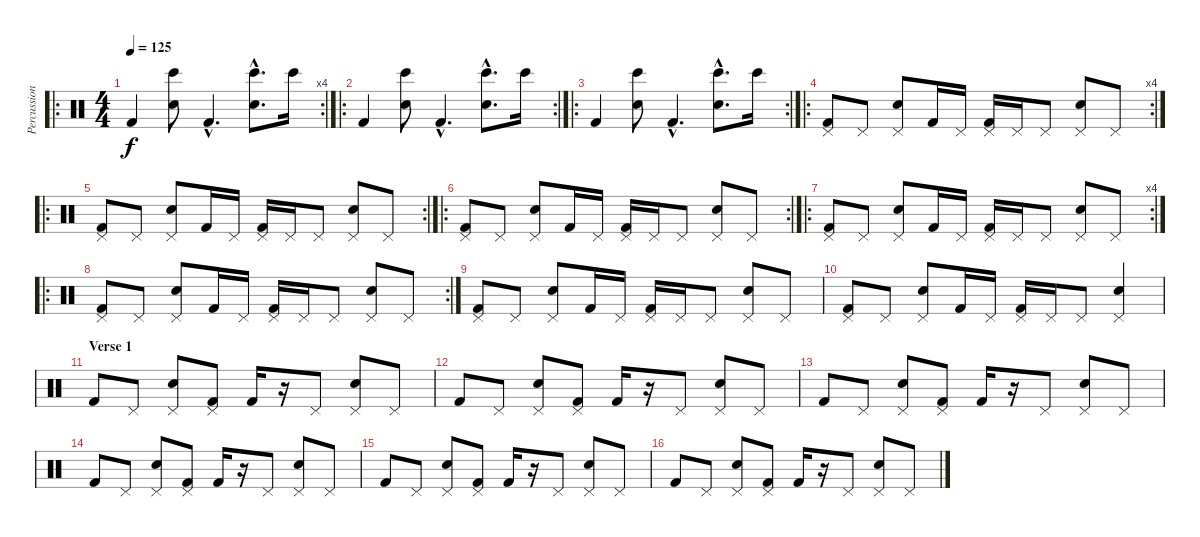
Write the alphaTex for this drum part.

\track ("Percussions" "Percussion") {instrument percussion}
\staff {score}
\articulation defaults
\ro
\rc 4
\ts (4 4)
\tempo 125
\clef neutral
\ks c "Kick (hit) 2".4{dy f}
("Electric Snare (hit)" "Bongo High (hit)").8 "Kick (hit) 2"{hac}.4{d} ("Electric Snare (hit)"{hac} "Bongo High (hit)"{hac}).8{d} "Bongo High (hit)".16 |
\ro
\rc 2 "Kick (hit) 2".4
("Electric Snare (hit)" "Bongo High (hit)").8 "Kick (hit) 2"{hac}.4{d} ("Electric Snare (hit)"{hac} "Bongo High (hit)"{hac}).8{d} "Bongo High (hit)".16 |
\ro
\rc 2 "Kick (hit) 2".4
("Electric Snare (hit)" "Bongo High (hit)").8 "Kick (hit) 2"{hac}.4{d} ("Electric Snare (hit)"{hac} "Bongo High (hit)"{hac}).8{d} "Bongo High (hit)".16 |
\ro
\rc 4
("Pedal Hi-Hat (hit)" "Kick (hit) 2").8 "Pedal Hi-Hat (hit)".8 ("Pedal Hi-Hat (hit)" "Electric Snare (hit)").8 "Kick (hit) 2".16 "Pedal Hi-Hat (hit)".16 ("Pedal Hi-Hat (hit)" "Kick (hit) 2").16 "Pedal Hi-Hat (hit)".16 "Pedal Hi-Hat (hit)".8 ("Pedal Hi-Hat (hit)" "Electric Snare (hit)").8 "Pedal Hi-Hat (hit)".8 |
\ro
\rc 2
("Pedal Hi-Hat (hit)" "Kick (hit) 2").8 "Pedal Hi-Hat (hit)".8 ("Pedal Hi-Hat (hit)" "Electric Snare (hit)").8 "Kick (hit) 2".16 "Pedal Hi-Hat (hit)".16 ("Pedal Hi-Hat (hit)" "Kick (hit) 2").16 "Pedal Hi-Hat (hit)".16 "Pedal Hi-Hat (hit)".8 ("Pedal Hi-Hat (hit)" "Electric Snare (hit)").8 "Pedal Hi-Hat (hit)".8 |
\ro
\rc 2
("Pedal Hi-Hat (hit)" "Kick (hit) 2").8 "Pedal Hi-Hat (hit)".8 ("Pedal Hi-Hat (hit)" "Electric Snare (hit)").8 "Kick (hit) 2".16 "Pedal Hi-Hat (hit)".16 ("Pedal Hi-Hat (hit)" "Kick (hit) 2").16 "Pedal Hi-Hat (hit)".16 "Pedal Hi-Hat (hit)".8 ("Pedal Hi-Hat (hit)" "Electric Snare (hit)").8 "Pedal Hi-Hat (hit)".8 |
\ro
\rc 4
("Pedal Hi-Hat (hit)" "Kick (hit) 2").8 "Pedal Hi-Hat (hit)".8 ("Pedal Hi-Hat (hit)" "Electric Snare (hit)").8 "Kick (hit) 2".16 "Pedal Hi-Hat (hit)".16 ("Pedal Hi-Hat (hit)" "Kick (hit) 2").16 "Pedal Hi-Hat (hit)".16 "Pedal Hi-Hat (hit)".8 ("Pedal Hi-Hat (hit)" "Electric Snare (hit)").8 "Pedal Hi-Hat (hit)".8 |
\ro
\rc 2
("Pedal Hi-Hat (hit)" "Kick (hit) 2").8 "Pedal Hi-Hat (hit)".8 ("Pedal Hi-Hat (hit)" "Electric Snare (hit)").8 "Kick (hit) 2".16 "Pedal Hi-Hat (hit)".16 ("Pedal Hi-Hat (hit)" "Kick (hit) 2").16 "Pedal Hi-Hat (hit)".16 "Pedal Hi-Hat (hit)".8 ("Pedal Hi-Hat (hit)" "Electric Snare (hit)").8 "Pedal Hi-Hat (hit)".8 |
("Pedal Hi-Hat (hit)" "Kick (hit) 2").8 "Pedal Hi-Hat (hit)".8 ("Pedal Hi-Hat (hit)" "Electric Snare (hit)").8 "Kick (hit) 2".16 "Pedal Hi-Hat (hit)".16 ("Pedal Hi-Hat (hit)" "Kick (hit) 2").16 "Pedal Hi-Hat (hit)".16 "Pedal Hi-Hat (hit)".8 ("Pedal Hi-Hat (hit)" "Electric Snare (hit)").8 "Pedal Hi-Hat (hit)".8 |
("Pedal Hi-Hat (hit)" "Kick (hit) 2").8 "Pedal Hi-Hat (hit)".8 ("Pedal Hi-Hat (hit)" "Electric Snare (hit)").8 "Kick (hit) 2".16 "Pedal Hi-Hat (hit)".16 ("Pedal Hi-Hat (hit)" "Kick (hit) 2").16 "Pedal Hi-Hat (hit)".16 "Pedal Hi-Hat (hit)".8 ("Pedal Hi-Hat (hit)" "Electric Snare (hit)").4 |
\section ("" "Verse 1")
"Kick (hit) 2".8 "Pedal Hi-Hat (hit)".8 ("Pedal Hi-Hat (hit)" "Electric Snare (hit)").8 ("Pedal Hi-Hat (hit)" "Kick (hit) 2").8 "Kick (hit) 2".16 r.16 "Pedal Hi-Hat (hit)".8 ("Pedal Hi-Hat (hit)" "Electric Snare (hit)").8 "Pedal Hi-Hat (hit)".8 |
"Kick (hit) 2".8 "Pedal Hi-Hat (hit)".8 ("Pedal Hi-Hat (hit)" "Electric Snare (hit)").8 ("Pedal Hi-Hat (hit)" "Kick (hit) 2").8 "Kick (hit) 2".16 r.16 "Pedal Hi-Hat (hit)".8 ("Pedal Hi-Hat (hit)" "Electric Snare (hit)").8 "Pedal Hi-Hat (hit)".8 |
"Kick (hit) 2".8 "Pedal Hi-Hat (hit)".8 ("Pedal Hi-Hat (hit)" "Electric Snare (hit)").8 ("Pedal Hi-Hat (hit)" "Kick (hit) 2").8 "Kick (hit) 2".16 r.16 "Pedal Hi-Hat (hit)".8 ("Pedal Hi-Hat (hit)" "Electric Snare (hit)").8 "Pedal Hi-Hat (hit)".8 |
"Kick (hit) 2".8 "Pedal Hi-Hat (hit)".8 ("Pedal Hi-Hat (hit)" "Electric Snare (hit)").8 ("Pedal Hi-Hat (hit)" "Kick (hit) 2").8 "Kick (hit) 2".16 r.16 "Pedal Hi-Hat (hit)".8 ("Pedal Hi-Hat (hit)" "Electric Snare (hit)").8 "Pedal Hi-Hat (hit)".8 |
"Kick (hit) 2".8 "Pedal Hi-Hat (hit)".8 ("Pedal Hi-Hat (hit)" "Electric Snare (hit)").8 ("Pedal Hi-Hat (hit)" "Kick (hit) 2").8 "Kick (hit) 2".16 r.16 "Pedal Hi-Hat (hit)".8 ("Pedal Hi-Hat (hit)" "Electric Snare (hit)").8 "Pedal Hi-Hat (hit)".8 |
"Kick (hit) 2".8 "Pedal Hi-Hat (hit)".8 ("Pedal Hi-Hat (hit)" "Electric Snare (hit)").8 ("Pedal Hi-Hat (hit)" "Kick (hit) 2").8 "Kick (hit) 2".16 r.16 "Pedal Hi-Hat (hit)".8 ("Pedal Hi-Hat (hit)" "Electric Snare (hit)").8 "Pedal Hi-Hat (hit)".8
